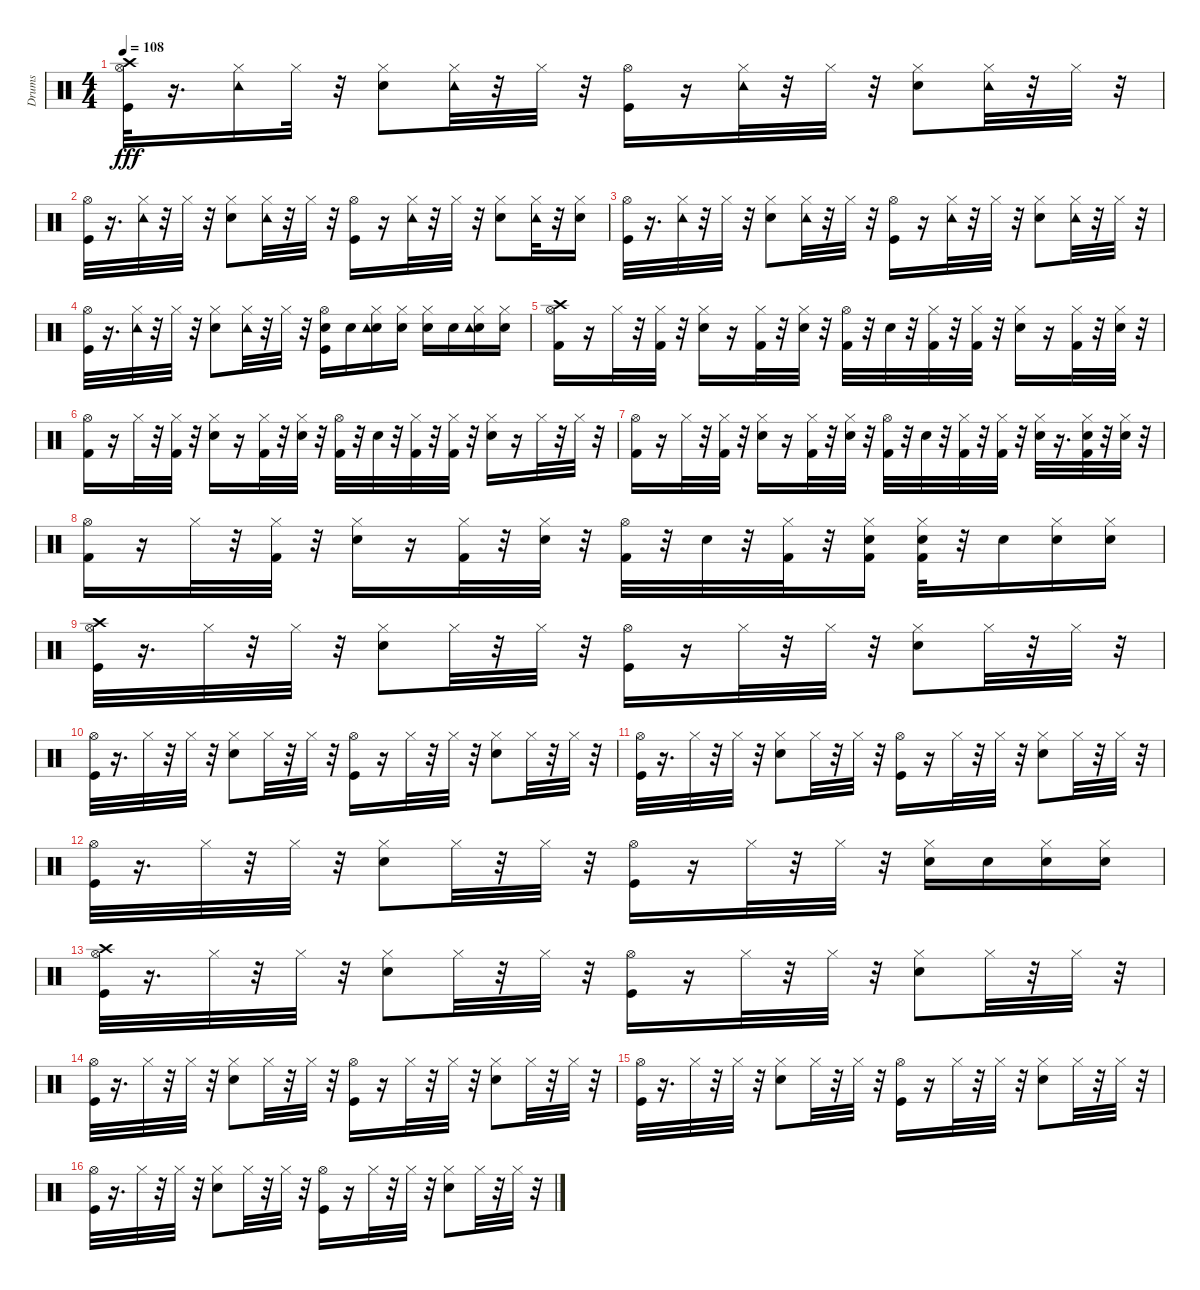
\track ("Drums               " "Drums     ") {instrument percussion}
\staff {score}
\articulation defaults
\ts (4 4)
\tempo 108
\clef neutral
\ks c
("Kick (hit)" "Hi-Hat (open)" "Crash high (hit)").32{dy fff} r.16{d} ("Hi-Hat (closed)" "Tambourine (hit)").16 "Hi-Hat (closed)".32 r.32 ("Snare (hit) 2" "Hi-Hat (closed)").8 ("Hi-Hat (closed)" "Tambourine (hit)").32 r.32 "Hi-Hat (closed)".32 r.32 ("Kick (hit)" "Hi-Hat (open)").16 r.16 ("Hi-Hat (closed)" "Tambourine (hit)").32 r.32 "Hi-Hat (closed)".32 r.32 ("Snare (hit) 2" "Hi-Hat (closed)").8 ("Hi-Hat (closed)" "Tambourine (hit)").32 r.32 "Hi-Hat (closed)".32 r.32 |
("Kick (hit)" "Hi-Hat (open)").32 r.16{d} ("Hi-Hat (closed)" "Tambourine (hit)").32 r.32 "Hi-Hat (closed)".32 r.32 ("Snare (hit) 2" "Hi-Hat (closed)").8 ("Hi-Hat (closed)" "Tambourine (hit)").32 r.32 "Hi-Hat (closed)".32 r.32 ("Kick (hit)" "Hi-Hat (open)").16 r.16 ("Hi-Hat (closed)" "Tambourine (hit)").32 r.32 "Hi-Hat (closed)".32 r.32 ("Snare (hit) 2" "Hi-Hat (closed)").8 ("Hi-Hat (closed)" "Tambourine (hit)").32 r.32 ("Snare (hit) 2" "Hi-Hat (closed)").16 |
("Kick (hit)" "Hi-Hat (open)").32 r.16{d} ("Hi-Hat (closed)" "Tambourine (hit)").32 r.32 "Hi-Hat (closed)".32 r.32 ("Snare (hit) 2" "Hi-Hat (closed)").8 ("Hi-Hat (closed)" "Tambourine (hit)").32 r.32 "Hi-Hat (closed)".32 r.32 ("Kick (hit)" "Hi-Hat (open)").16 r.16 ("Hi-Hat (closed)" "Tambourine (hit)").32 r.32 "Hi-Hat (closed)".32 r.32 ("Snare (hit) 2" "Hi-Hat (closed)").8 ("Hi-Hat (closed)" "Tambourine (hit)").32 r.32 "Hi-Hat (closed)".32 r.32 |
("Kick (hit)" "Hi-Hat (open)").32 r.16{d} ("Hi-Hat (closed)" "Tambourine (hit)").32 r.32 "Hi-Hat (closed)".32 r.32 ("Snare (hit) 2" "Hi-Hat (closed)").8 ("Hi-Hat (closed)" "Tambourine (hit)").32 r.32 "Hi-Hat (closed)".32 r.32 ("Kick (hit)" "Snare (hit) 2" "Hi-Hat (open)").16 "Snare (hit) 2".16 ("Snare (hit) 2" "Hi-Hat (closed)" "Tambourine (hit)").16 ("Snare (hit) 2" "Hi-Hat (closed)").16 ("Snare (hit) 2" "Hi-Hat (closed)").16 "Snare (hit) 2".16 ("Snare (hit) 2" "Hi-Hat (closed)" "Tambourine (hit)").16 ("Snare (hit) 2" "Hi-Hat (closed)").16 |
("Kick (hit) 2" "Hi-Hat (open)" "Crash high (hit)").16 r.16 "Hi-Hat (closed)".32 r.32 ("Kick (hit) 2" "Hi-Hat (closed)").32 r.32 ("Electric Snare (hit)" "Hi-Hat (closed)").16 r.16 ("Kick (hit) 2" "Hi-Hat (closed)").32 r.32 ("Electric Snare (hit)" "Hi-Hat (closed)").32 r.32 ("Kick (hit) 2" "Hi-Hat (open)").32 r.32 "Electric Snare (hit)".32 r.32 ("Kick (hit) 2" "Hi-Hat (closed)").32 r.32 ("Kick (hit) 2" "Hi-Hat (closed)").32 r.32 ("Electric Snare (hit)" "Hi-Hat (closed)").16 r.16 ("Kick (hit) 2" "Hi-Hat (closed)").32 r.32 ("Electric Snare (hit)" "Hi-Hat (closed)").32 r.32 |
("Kick (hit) 2" "Hi-Hat (open)").16 r.16 "Hi-Hat (closed)".32 r.32 ("Kick (hit) 2" "Hi-Hat (closed)").32 r.32 ("Electric Snare (hit)" "Hi-Hat (closed)").16 r.16 ("Kick (hit) 2" "Hi-Hat (closed)").32 r.32 ("Electric Snare (hit)" "Hi-Hat (closed)").32 r.32 ("Kick (hit) 2" "Hi-Hat (open)").32 r.32 "Electric Snare (hit)".32 r.32 ("Kick (hit) 2" "Hi-Hat (closed)").32 r.32 ("Kick (hit) 2" "Hi-Hat (closed)").32 r.32 ("Electric Snare (hit)" "Hi-Hat (closed)").16 r.16 "Hi-Hat (closed)".32 r.32 "Hi-Hat (closed)".32 r.32 |
("Kick (hit) 2" "Hi-Hat (open)").16 r.16 "Hi-Hat (closed)".32 r.32 ("Kick (hit) 2" "Hi-Hat (closed)").32 r.32 ("Electric Snare (hit)" "Hi-Hat (closed)").16 r.16 ("Kick (hit) 2" "Hi-Hat (closed)").32 r.32 ("Electric Snare (hit)" "Hi-Hat (closed)").32 r.32 ("Kick (hit) 2" "Hi-Hat (open)").32 r.32 "Electric Snare (hit)".32 r.32 ("Kick (hit) 2" "Hi-Hat (closed)").32 r.32 ("Kick (hit) 2" "Hi-Hat (closed)").32 r.32 ("Electric Snare (hit)" "Hi-Hat (closed)").32 r.16{d} ("Kick (hit) 2" "Electric Snare (hit)" "Hi-Hat (closed)").32 r.32 ("Electric Snare (hit)" "Hi-Hat (closed)").32 r.32 |
("Kick (hit) 2" "Hi-Hat (open)").16 r.16 "Hi-Hat (closed)".32 r.32 ("Kick (hit) 2" "Hi-Hat (closed)").32 r.32 ("Electric Snare (hit)" "Hi-Hat (closed)").16 r.16 ("Kick (hit) 2" "Hi-Hat (closed)").32 r.32 ("Electric Snare (hit)" "Hi-Hat (closed)").32 r.32 ("Kick (hit) 2" "Hi-Hat (open)").32 r.32 "Electric Snare (hit)".32 r.32 ("Kick (hit) 2" "Hi-Hat (closed)").32 r.32 ("Kick (hit) 2" "Snare (hit) 2" "Hi-Hat (closed)").16 ("Kick (hit) 2" "Snare (hit) 2" "Hi-Hat (closed)").32 r.32 "Snare (hit) 2".16 ("Snare (hit) 2" "Hi-Hat (closed)").16 ("Snare (hit) 2" "Hi-Hat (closed)").16 |
("Kick (hit)" "Hi-Hat (open)" "Crash high (hit)").32 r.16{d} "Hi-Hat (closed)".32 r.32 "Hi-Hat (closed)".32 r.32 ("Snare (hit) 2" "Hi-Hat (closed)").8 "Hi-Hat (closed)".32 r.32 "Hi-Hat (closed)".32 r.32 ("Kick (hit)" "Hi-Hat (open)").16 r.16 "Hi-Hat (closed)".32 r.32 "Hi-Hat (closed)".32 r.32 ("Snare (hit) 2" "Hi-Hat (closed)").8 "Hi-Hat (closed)".32 r.32 "Hi-Hat (closed)".32 r.32 |
("Kick (hit)" "Hi-Hat (open)").32 r.16{d} "Hi-Hat (closed)".32 r.32 "Hi-Hat (closed)".32 r.32 ("Snare (hit) 2" "Hi-Hat (closed)").8 "Hi-Hat (closed)".32 r.32 "Hi-Hat (closed)".32 r.32 ("Kick (hit)" "Hi-Hat (open)").16 r.16 "Hi-Hat (closed)".32 r.32 "Hi-Hat (closed)".32 r.32 ("Snare (hit) 2" "Hi-Hat (closed)").8 "Hi-Hat (closed)".32 r.32 "Hi-Hat (closed)".32 r.32 |
("Kick (hit)" "Hi-Hat (open)").32 r.16{d} "Hi-Hat (closed)".32 r.32 "Hi-Hat (closed)".32 r.32 ("Snare (hit) 2" "Hi-Hat (closed)").8 "Hi-Hat (closed)".32 r.32 "Hi-Hat (closed)".32 r.32 ("Kick (hit)" "Hi-Hat (open)").16 r.16 "Hi-Hat (closed)".32 r.32 "Hi-Hat (closed)".32 r.32 ("Snare (hit) 2" "Hi-Hat (closed)").8 "Hi-Hat (closed)".32 r.32 "Hi-Hat (closed)".32 r.32 |
("Kick (hit)" "Hi-Hat (open)").32 r.16{d} "Hi-Hat (closed)".32 r.32 "Hi-Hat (closed)".32 r.32 ("Snare (hit) 2" "Hi-Hat (closed)").8 "Hi-Hat (closed)".32 r.32 "Hi-Hat (closed)".32 r.32 ("Kick (hit)" "Hi-Hat (open)").16 r.16 "Hi-Hat (closed)".32 r.32 "Hi-Hat (closed)".32 r.32 ("Snare (hit) 2" "Hi-Hat (closed)").16 "Snare (hit) 2".16 ("Snare (hit) 2" "Hi-Hat (closed)").16 ("Snare (hit) 2" "Hi-Hat (closed)").16 |
("Kick (hit)" "Hi-Hat (open)" "Crash high (hit)").32 r.16{d} "Hi-Hat (closed)".32 r.32 "Hi-Hat (closed)".32 r.32 ("Snare (hit) 2" "Hi-Hat (closed)").8 "Hi-Hat (closed)".32 r.32 "Hi-Hat (closed)".32 r.32 ("Kick (hit)" "Hi-Hat (open)").16 r.16 "Hi-Hat (closed)".32 r.32 "Hi-Hat (closed)".32 r.32 ("Snare (hit) 2" "Hi-Hat (closed)").8 "Hi-Hat (closed)".32 r.32 "Hi-Hat (closed)".32 r.32 |
("Kick (hit)" "Hi-Hat (open)").32 r.16{d} "Hi-Hat (closed)".32 r.32 "Hi-Hat (closed)".32 r.32 ("Snare (hit) 2" "Hi-Hat (closed)").8 "Hi-Hat (closed)".32 r.32 "Hi-Hat (closed)".32 r.32 ("Kick (hit)" "Hi-Hat (open)").16 r.16 "Hi-Hat (closed)".32 r.32 "Hi-Hat (closed)".32 r.32 ("Snare (hit) 2" "Hi-Hat (closed)").8 "Hi-Hat (closed)".32 r.32 "Hi-Hat (closed)".32 r.32 |
("Kick (hit)" "Hi-Hat (open)").32 r.16{d} "Hi-Hat (closed)".32 r.32 "Hi-Hat (closed)".32 r.32 ("Snare (hit) 2" "Hi-Hat (closed)").8 "Hi-Hat (closed)".32 r.32 "Hi-Hat (closed)".32 r.32 ("Kick (hit)" "Hi-Hat (open)").16 r.16 "Hi-Hat (closed)".32 r.32 "Hi-Hat (closed)".32 r.32 ("Snare (hit) 2" "Hi-Hat (closed)").8 "Hi-Hat (closed)".32 r.32 "Hi-Hat (closed)".32 r.32 |
("Kick (hit)" "Hi-Hat (open)").32 r.16{d} "Hi-Hat (closed)".32 r.32 "Hi-Hat (closed)".32 r.32 ("Snare (hit) 2" "Hi-Hat (closed)").8 "Hi-Hat (closed)".32 r.32 "Hi-Hat (closed)".32 r.32 ("Kick (hit)" "Hi-Hat (open)").16 r.16 "Hi-Hat (closed)".32 r.32 "Hi-Hat (closed)".32 r.32 ("Snare (hit) 2" "Hi-Hat (closed)").8 "Hi-Hat (closed)".32 r.32 "Hi-Hat (closed)".32 r.32
